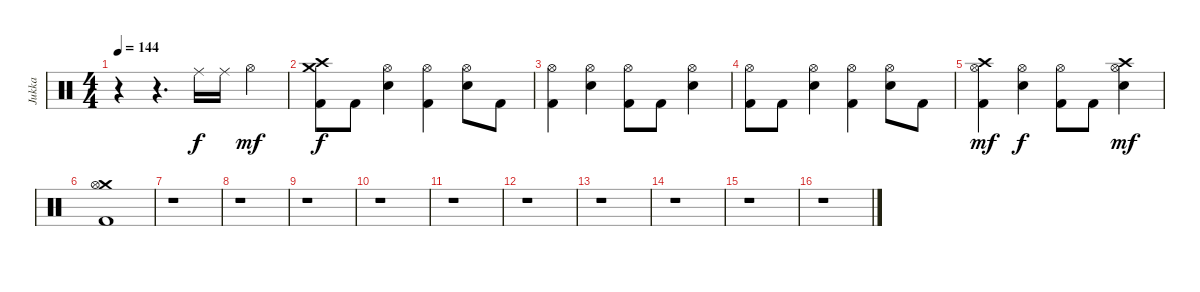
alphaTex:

\track ("Jukka" "Jukka") {instrument percussion}
\staff {score}
\articulation defaults
\ts (4 4)
\tempo 144
\clef neutral
\ks c
r.4{dy f} r.4{d} "Ride (middle)".16 "Ride (middle)".16 "Hi-Hat (open)".4{dy mf} |
("Crash high (hit)" "Crash medium (hit)" "Kick (hit) 2").8{dy f} "Kick (hit) 2".8 ("Hi-Hat (open)" "Electric Snare (hit)").4 ("Hi-Hat (open)" "Kick (hit) 2").4 ("Hi-Hat (open)" "Electric Snare (hit)").8 "Kick (hit) 2".8 |
("Hi-Hat (open)" "Kick (hit) 2").4 ("Hi-Hat (open)" "Electric Snare (hit)").4 ("Hi-Hat (open)" "Kick (hit) 2").8 "Kick (hit) 2".8 ("Hi-Hat (open)" "Electric Snare (hit)").4 |
("Hi-Hat (open)" "Kick (hit) 2").8 "Kick (hit) 2".8 ("Hi-Hat (open)" "Electric Snare (hit)").4 ("Hi-Hat (open)" "Kick (hit) 2").4 ("Hi-Hat (open)" "Electric Snare (hit)").8 "Kick (hit) 2".8 |
("Crash high (hit)" "Hi-Hat (open)" "Kick (hit) 2").4{dy mf} ("Hi-Hat (open)" "Electric Snare (hit)").4{dy f} ("Hi-Hat (open)" "Kick (hit) 2").8 "Kick (hit) 2".8 ("Crash high (hit)" "Hi-Hat (open)" "Electric Snare (hit)").4{dy mf} |
("Crash medium (hit)" "Hi-Hat (open)" "Kick (hit) 2").1 |
r.1 |
r.1 |
r.1 |
r.1 |
r.1 |
r.1 |
r.1 |
r.1 |
r.1 |
r.1
